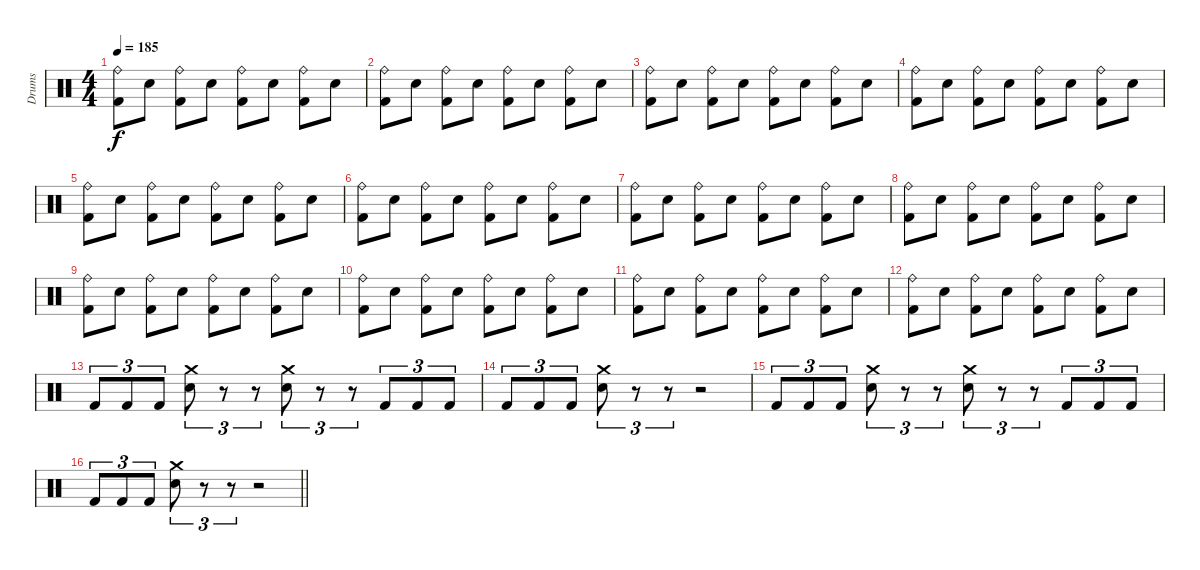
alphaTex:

\track ("Drums" "Drums") {instrument percussion}
\staff {score}
\articulation defaults
\ts (4 4)
\tempo 185
\clef neutral
\ks c
("Ride (bell)" "Kick (hit) 2").8{dy f} "Snare (hit) 2".8 ("Ride (bell)" "Kick (hit) 2").8 "Snare (hit) 2".8 ("Ride (bell)" "Kick (hit) 2").8 "Snare (hit) 2".8 ("Ride (bell)" "Kick (hit) 2").8 "Snare (hit) 2".8 |
("Ride (bell)" "Kick (hit) 2").8 "Snare (hit) 2".8 ("Ride (bell)" "Kick (hit) 2").8 "Snare (hit) 2".8 ("Ride (bell)" "Kick (hit) 2").8 "Snare (hit) 2".8 ("Ride (bell)" "Kick (hit) 2").8 "Snare (hit) 2".8 |
("Ride (bell)" "Kick (hit) 2").8 "Snare (hit) 2".8 ("Ride (bell)" "Kick (hit) 2").8 "Snare (hit) 2".8 ("Ride (bell)" "Kick (hit) 2").8 "Snare (hit) 2".8 ("Ride (bell)" "Kick (hit) 2").8 "Snare (hit) 2".8 |
("Ride (bell)" "Kick (hit) 2").8 "Snare (hit) 2".8 ("Ride (bell)" "Kick (hit) 2").8 "Snare (hit) 2".8 ("Ride (bell)" "Kick (hit) 2").8 "Snare (hit) 2".8 ("Ride (bell)" "Kick (hit) 2").8 "Snare (hit) 2".8 |
("Ride (bell)" "Kick (hit) 2").8 "Snare (hit) 2".8 ("Ride (bell)" "Kick (hit) 2").8 "Snare (hit) 2".8 ("Ride (bell)" "Kick (hit) 2").8 "Snare (hit) 2".8 ("Ride (bell)" "Kick (hit) 2").8 "Snare (hit) 2".8 |
("Ride (bell)" "Kick (hit) 2").8 "Snare (hit) 2".8 ("Ride (bell)" "Kick (hit) 2").8 "Snare (hit) 2".8 ("Ride (bell)" "Kick (hit) 2").8 "Snare (hit) 2".8 ("Ride (bell)" "Kick (hit) 2").8 "Snare (hit) 2".8 |
("Ride (bell)" "Kick (hit) 2").8 "Snare (hit) 2".8 ("Ride (bell)" "Kick (hit) 2").8 "Snare (hit) 2".8 ("Ride (bell)" "Kick (hit) 2").8 "Snare (hit) 2".8 ("Ride (bell)" "Kick (hit) 2").8 "Snare (hit) 2".8 |
("Ride (bell)" "Kick (hit) 2").8 "Snare (hit) 2".8 ("Ride (bell)" "Kick (hit) 2").8 "Snare (hit) 2".8 ("Ride (bell)" "Kick (hit) 2").8 "Snare (hit) 2".8 ("Ride (bell)" "Kick (hit) 2").8 "Snare (hit) 2".8 |
("Ride (bell)" "Kick (hit) 2").8 "Snare (hit) 2".8 ("Ride (bell)" "Kick (hit) 2").8 "Snare (hit) 2".8 ("Ride (bell)" "Kick (hit) 2").8 "Snare (hit) 2".8 ("Ride (bell)" "Kick (hit) 2").8 "Snare (hit) 2".8 |
("Ride (bell)" "Kick (hit) 2").8 "Snare (hit) 2".8 ("Ride (bell)" "Kick (hit) 2").8 "Snare (hit) 2".8 ("Ride (bell)" "Kick (hit) 2").8 "Snare (hit) 2".8 ("Ride (bell)" "Kick (hit) 2").8 "Snare (hit) 2".8 |
("Ride (bell)" "Kick (hit) 2").8 "Snare (hit) 2".8 ("Ride (bell)" "Kick (hit) 2").8 "Snare (hit) 2".8 ("Ride (bell)" "Kick (hit) 2").8 "Snare (hit) 2".8 ("Ride (bell)" "Kick (hit) 2").8 "Snare (hit) 2".8 |
("Ride (bell)" "Kick (hit) 2").8 "Snare (hit) 2".8 ("Ride (bell)" "Kick (hit) 2").8 "Snare (hit) 2".8 ("Ride (bell)" "Kick (hit) 2").8 "Snare (hit) 2".8 ("Ride (bell)" "Kick (hit) 2").8 "Snare (hit) 2".8 |
"Kick (hit) 2".8{tu (3 2)} "Kick (hit) 2".8{tu (3 2)} "Kick (hit) 2".8{tu (3 2)} ("Crash medium (hit)" "Snare (hit) 2").8{tu (3 2)} r.8{tu (3 2)} r.8{tu (3 2)} ("Crash medium (hit)" "Snare (hit) 2").8{tu (3 2)} r.8{tu (3 2)} r.8{tu (3 2)} "Kick (hit) 2".8{tu (3 2)} "Kick (hit) 2".8{tu (3 2)} "Kick (hit) 2".8{tu (3 2)} |
"Kick (hit) 2".8{tu (3 2)} "Kick (hit) 2".8{tu (3 2)} "Kick (hit) 2".8{tu (3 2)} ("Crash medium (hit)" "Snare (hit) 2").8{tu (3 2)} r.8{tu (3 2)} r.8{tu (3 2)} r.2 |
"Kick (hit) 2".8{tu (3 2)} "Kick (hit) 2".8{tu (3 2)} "Kick (hit) 2".8{tu (3 2)} ("Crash medium (hit)" "Snare (hit) 2").8{tu (3 2)} r.8{tu (3 2)} r.8{tu (3 2)} ("Crash medium (hit)" "Snare (hit) 2").8{tu (3 2)} r.8{tu (3 2)} r.8{tu (3 2)} "Kick (hit) 2".8{tu (3 2)} "Kick (hit) 2".8{tu (3 2)} "Kick (hit) 2".8{tu (3 2)} |
\barLineRight lightlight "Kick (hit) 2".8{tu (3 2)} "Kick (hit) 2".8{tu (3 2)} "Kick (hit) 2".8{tu (3 2)}
("Crash medium (hit)" "Snare (hit) 2").8{tu (3 2)} r.8{tu (3 2)} r.8{tu (3 2)} r.2
